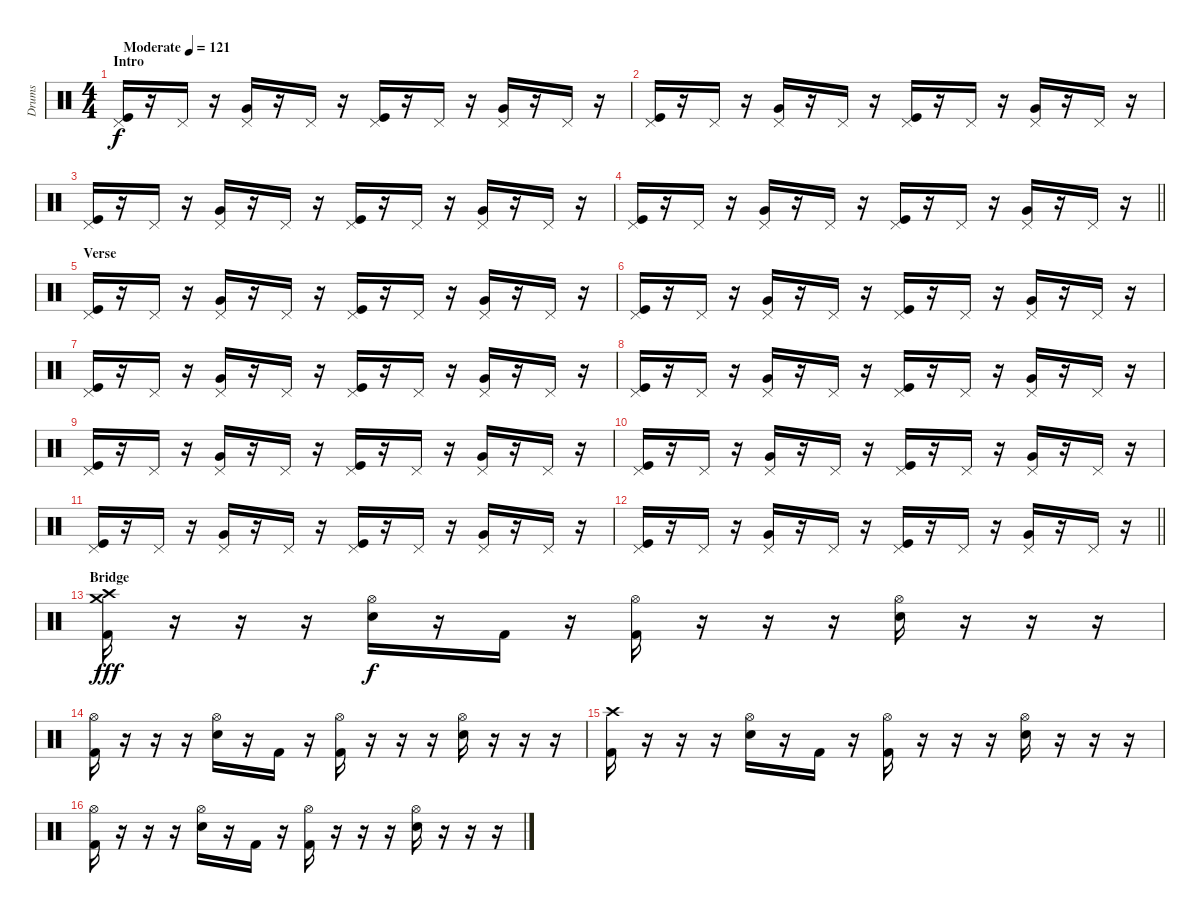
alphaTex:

\track ("Drums" "Drums") {instrument percussion}
\staff {score}
\articulation defaults
\ts (4 4)
\section ("" "Intro")
\tempo (121 "Moderate")
\clef neutral
\ks c
("Pedal Hi-Hat (hit)" "Kick (hit)").16{dy f} r.16 "Pedal Hi-Hat (hit)".16 r.16 ("Pedal Hi-Hat (hit)" "Very Low Tom (hit)").16 r.16 "Pedal Hi-Hat (hit)".16 r.16 ("Pedal Hi-Hat (hit)" "Kick (hit)").16 r.16 "Pedal Hi-Hat (hit)".16 r.16 ("Pedal Hi-Hat (hit)" "Very Low Tom (hit)").16 r.16 "Pedal Hi-Hat (hit)".16 r.16 |
("Pedal Hi-Hat (hit)" "Kick (hit)").16 r.16 "Pedal Hi-Hat (hit)".16 r.16 ("Pedal Hi-Hat (hit)" "Very Low Tom (hit)").16 r.16 "Pedal Hi-Hat (hit)".16 r.16 ("Pedal Hi-Hat (hit)" "Kick (hit)").16 r.16 "Pedal Hi-Hat (hit)".16 r.16 ("Pedal Hi-Hat (hit)" "Very Low Tom (hit)").16 r.16 "Pedal Hi-Hat (hit)".16 r.16 |
("Pedal Hi-Hat (hit)" "Kick (hit)").16 r.16 "Pedal Hi-Hat (hit)".16 r.16 ("Pedal Hi-Hat (hit)" "Very Low Tom (hit)").16 r.16 "Pedal Hi-Hat (hit)".16 r.16 ("Pedal Hi-Hat (hit)" "Kick (hit)").16 r.16 "Pedal Hi-Hat (hit)".16 r.16 ("Pedal Hi-Hat (hit)" "Very Low Tom (hit)").16 r.16 "Pedal Hi-Hat (hit)".16 r.16 |
\barLineRight lightlight
("Pedal Hi-Hat (hit)" "Kick (hit)").16 r.16 "Pedal Hi-Hat (hit)".16 r.16 ("Pedal Hi-Hat (hit)" "Very Low Tom (hit)").16 r.16 "Pedal Hi-Hat (hit)".16 r.16 ("Pedal Hi-Hat (hit)" "Kick (hit)").16 r.16 "Pedal Hi-Hat (hit)".16 r.16 ("Pedal Hi-Hat (hit)" "Very Low Tom (hit)").16 r.16 "Pedal Hi-Hat (hit)".16 r.16 |
\section ("" "Verse")
("Pedal Hi-Hat (hit)" "Kick (hit)").16 r.16 "Pedal Hi-Hat (hit)".16 r.16 ("Pedal Hi-Hat (hit)" "Very Low Tom (hit)").16 r.16 "Pedal Hi-Hat (hit)".16 r.16 ("Pedal Hi-Hat (hit)" "Kick (hit)").16 r.16 "Pedal Hi-Hat (hit)".16 r.16 ("Pedal Hi-Hat (hit)" "Very Low Tom (hit)").16 r.16 "Pedal Hi-Hat (hit)".16 r.16 |
("Pedal Hi-Hat (hit)" "Kick (hit)").16 r.16 "Pedal Hi-Hat (hit)".16 r.16 ("Pedal Hi-Hat (hit)" "Very Low Tom (hit)").16 r.16 "Pedal Hi-Hat (hit)".16 r.16 ("Pedal Hi-Hat (hit)" "Kick (hit)").16 r.16 "Pedal Hi-Hat (hit)".16 r.16 ("Pedal Hi-Hat (hit)" "Very Low Tom (hit)").16 r.16 "Pedal Hi-Hat (hit)".16 r.16 |
("Pedal Hi-Hat (hit)" "Kick (hit)").16 r.16 "Pedal Hi-Hat (hit)".16 r.16 ("Pedal Hi-Hat (hit)" "Very Low Tom (hit)").16 r.16 "Pedal Hi-Hat (hit)".16 r.16 ("Pedal Hi-Hat (hit)" "Kick (hit)").16 r.16 "Pedal Hi-Hat (hit)".16 r.16 ("Pedal Hi-Hat (hit)" "Very Low Tom (hit)").16 r.16 "Pedal Hi-Hat (hit)".16 r.16 |
("Pedal Hi-Hat (hit)" "Kick (hit)").16 r.16 "Pedal Hi-Hat (hit)".16 r.16 ("Pedal Hi-Hat (hit)" "Very Low Tom (hit)").16 r.16 "Pedal Hi-Hat (hit)".16 r.16 ("Pedal Hi-Hat (hit)" "Kick (hit)").16 r.16 "Pedal Hi-Hat (hit)".16 r.16 ("Pedal Hi-Hat (hit)" "Very Low Tom (hit)").16 r.16 "Pedal Hi-Hat (hit)".16 r.16 |
("Pedal Hi-Hat (hit)" "Kick (hit)").16 r.16 "Pedal Hi-Hat (hit)".16 r.16 ("Pedal Hi-Hat (hit)" "Very Low Tom (hit)").16 r.16 "Pedal Hi-Hat (hit)".16 r.16 ("Pedal Hi-Hat (hit)" "Kick (hit)").16 r.16 "Pedal Hi-Hat (hit)".16 r.16 ("Pedal Hi-Hat (hit)" "Very Low Tom (hit)").16 r.16 "Pedal Hi-Hat (hit)".16 r.16 |
("Pedal Hi-Hat (hit)" "Kick (hit)").16 r.16 "Pedal Hi-Hat (hit)".16 r.16 ("Pedal Hi-Hat (hit)" "Very Low Tom (hit)").16 r.16 "Pedal Hi-Hat (hit)".16 r.16 ("Pedal Hi-Hat (hit)" "Kick (hit)").16 r.16 "Pedal Hi-Hat (hit)".16 r.16 ("Pedal Hi-Hat (hit)" "Very Low Tom (hit)").16 r.16 "Pedal Hi-Hat (hit)".16 r.16 |
("Pedal Hi-Hat (hit)" "Kick (hit)").16 r.16 "Pedal Hi-Hat (hit)".16 r.16 ("Pedal Hi-Hat (hit)" "Very Low Tom (hit)").16 r.16 "Pedal Hi-Hat (hit)".16 r.16 ("Pedal Hi-Hat (hit)" "Kick (hit)").16 r.16 "Pedal Hi-Hat (hit)".16 r.16 ("Pedal Hi-Hat (hit)" "Very Low Tom (hit)").16 r.16 "Pedal Hi-Hat (hit)".16 r.16 |
\barLineRight lightlight
("Pedal Hi-Hat (hit)" "Kick (hit)").16 r.16 "Pedal Hi-Hat (hit)".16 r.16 ("Pedal Hi-Hat (hit)" "Very Low Tom (hit)").16 r.16 "Pedal Hi-Hat (hit)".16 r.16 ("Pedal Hi-Hat (hit)" "Kick (hit)").16 r.16 "Pedal Hi-Hat (hit)".16 r.16 ("Pedal Hi-Hat (hit)" "Very Low Tom (hit)").16 r.16 "Pedal Hi-Hat (hit)".16 r.16 |
\section ("" "Bridge")
("Crash high (hit)" "Crash medium (hit)" "Kick (hit) 2").16{dy fff volume 14} r.16 r.16 r.16 ("Hi-Hat (open)" "Electric Snare (hit)").16{dy f} r.16 "Kick (hit) 2".16 r.16 ("Hi-Hat (open)" "Kick (hit) 2").16 r.16 r.16 r.16 ("Hi-Hat (open)" "Electric Snare (hit)").16 r.16 r.16 r.16 |
("Hi-Hat (open)" "Kick (hit) 2").16 r.16 r.16 r.16 ("Hi-Hat (open)" "Electric Snare (hit)").16 r.16 "Kick (hit) 2".16 r.16 ("Hi-Hat (open)" "Kick (hit) 2").16 r.16 r.16 r.16 ("Hi-Hat (open)" "Electric Snare (hit)").16 r.16 r.16 r.16 |
("Crash high (hit)" "Kick (hit) 2").16 r.16 r.16 r.16 ("Hi-Hat (open)" "Electric Snare (hit)").16 r.16 "Kick (hit) 2".16 r.16 ("Hi-Hat (open)" "Kick (hit) 2").16 r.16 r.16 r.16 ("Hi-Hat (open)" "Electric Snare (hit)").16 r.16 r.16 r.16 |
("Hi-Hat (open)" "Kick (hit) 2").16 r.16 r.16 r.16 ("Hi-Hat (open)" "Electric Snare (hit)").16 r.16 "Kick (hit) 2".16 r.16 ("Hi-Hat (open)" "Kick (hit) 2").16 r.16 r.16 r.16 ("Hi-Hat (open)" "Electric Snare (hit)").16 r.16 r.16 r.16
